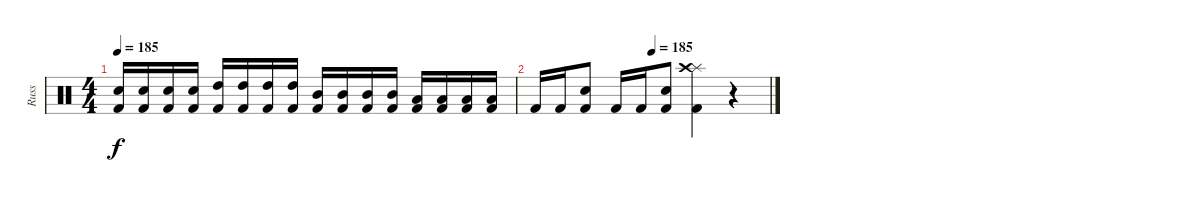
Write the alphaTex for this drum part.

\track ("Russ" "Russ") {instrument percussion}
\staff {score}
\articulation defaults
\ts (4 4)
\tempo 185
\clef neutral
\ks c
("Kick (hit) 2" "Snare (hit) 2").16{dy f} ("Kick (hit) 2" "Snare (hit) 2").16 ("Kick (hit) 2" "Snare (hit) 2").16 ("Kick (hit) 2" "Snare (hit) 2").16 ("Kick (hit) 2" "High Tom (hit)").16 ("Kick (hit) 2" "High Tom (hit)").16 ("Kick (hit) 2" "High Tom (hit)").16 ("Kick (hit) 2" "High Tom (hit)").16 ("Kick (hit) 2" "Mid Tom (hit)").16 ("Kick (hit) 2" "Mid Tom (hit)").16 ("Kick (hit) 2" "Mid Tom (hit)").16 ("Kick (hit) 2" "Mid Tom (hit)").16 ("Kick (hit) 2" "Low Floor Tom (hit)").16 ("Kick (hit) 2" "Low Floor Tom (hit)").16 ("Kick (hit) 2" "Low Floor Tom (hit)").16 ("Kick (hit) 2" "Low Floor Tom (hit)").16 |
\tempo (185 0.5)
"Kick (hit) 2".16 "Kick (hit) 2".16 ("Kick (hit) 2" "Snare (hit) 2").8 "Kick (hit) 2".16 "Kick (hit) 2".16 ("Kick (hit) 2" "Snare (hit) 2").8 ("Kick (hit) 2" "Splash (hit)" "Crash high (hit)").4 r.4
